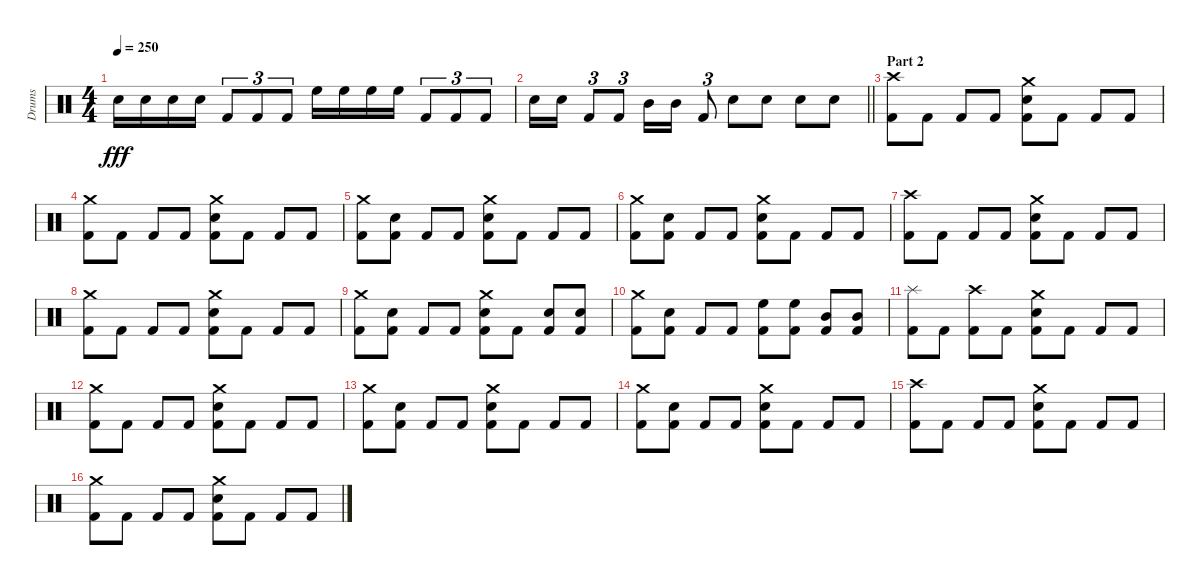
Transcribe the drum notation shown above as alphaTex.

\track ("Drums" "Drums") {solo instrument percussion}
\staff {score}
\articulation defaults
\ts (4 4)
\tempo 250
\clef neutral
\ks c "Snare (hit) 2".16{dy fff} "Snare (hit) 2".16 "Snare (hit) 2".16 "Snare (hit) 2".16 "Kick (hit) 2".8{tu (3 2)} "Kick (hit) 2".8{tu (3 2)} "Kick (hit) 2".8{tu (3 2)} "High Floor Tom (hit)".16 "High Floor Tom (hit)".16 "High Floor Tom (hit)".16 "High Floor Tom (hit)".16 "Kick (hit) 2".8{tu (3 2)} "Kick (hit) 2".8{tu (3 2)} "Kick (hit) 2".8{tu (3 2)}
|
\barLineRight lightlight "Snare (hit) 2".16 "Snare (hit) 2".16 "Kick (hit) 2".8{tu (3 2)} "Kick (hit) 2".8{tu (3 2)} "Mid Tom (hit)".16 "Mid Tom (hit)".16 "Kick (hit) 2".8{tu (3 2)} "Snare (hit) 2".8 "Snare (hit) 2".8 "Snare (hit) 2".8 "Snare (hit) 2".8
|
\section ("" "Part 2")
("Crash high (hit)" "Kick (hit) 2").8 "Kick (hit) 2".8 "Kick (hit) 2".8 "Kick (hit) 2".8 ("Crash medium (hit)" "Snare (hit) 2" "Kick (hit) 2").8 "Kick (hit) 2".8 "Kick (hit) 2".8 "Kick (hit) 2".8 |
("Crash medium (hit)" "Kick (hit) 2").8 "Kick (hit) 2".8 "Kick (hit) 2".8 "Kick (hit) 2".8 ("Crash medium (hit)" "Snare (hit) 2" "Kick (hit) 2").8 "Kick (hit) 2".8 "Kick (hit) 2".8 "Kick (hit) 2".8 |
("Crash medium (hit)" "Kick (hit) 2").8 ("Snare (hit) 2" "Kick (hit) 2").8 "Kick (hit) 2".8 "Kick (hit) 2".8 ("Crash medium (hit)" "Snare (hit) 2" "Kick (hit) 2").8 "Kick (hit) 2".8 "Kick (hit) 2".8 "Kick (hit) 2".8 |
("Crash medium (hit)" "Kick (hit) 2").8 ("Snare (hit) 2" "Kick (hit) 2").8 "Kick (hit) 2".8 "Kick (hit) 2".8 ("Crash medium (hit)" "Snare (hit) 2" "Kick (hit) 2").8 "Kick (hit) 2".8 "Kick (hit) 2".8 "Kick (hit) 2".8 |
("Crash high (hit)" "Kick (hit) 2").8 "Kick (hit) 2".8 "Kick (hit) 2".8 "Kick (hit) 2".8 ("Crash medium (hit)" "Snare (hit) 2" "Kick (hit) 2").8 "Kick (hit) 2".8 "Kick (hit) 2".8 "Kick (hit) 2".8 |
("Crash medium (hit)" "Kick (hit) 2").8 "Kick (hit) 2".8 "Kick (hit) 2".8 "Kick (hit) 2".8 ("Crash medium (hit)" "Snare (hit) 2" "Kick (hit) 2").8 "Kick (hit) 2".8 "Kick (hit) 2".8 "Kick (hit) 2".8 |
("Crash medium (hit)" "Kick (hit) 2").8 ("Snare (hit) 2" "Kick (hit) 2").8 "Kick (hit) 2".8 "Kick (hit) 2".8 ("Crash medium (hit)" "Snare (hit) 2" "Kick (hit) 2").8 "Kick (hit) 2".8 ("Snare (hit) 2" "Kick (hit) 2").8 ("Snare (hit) 2" "Kick (hit) 2").8 |
("Crash medium (hit)" "Kick (hit) 2").8 ("Snare (hit) 2" "Kick (hit) 2").8 "Kick (hit) 2".8 "Kick (hit) 2".8 ("High Floor Tom (hit)" "Kick (hit) 2").8 ("High Floor Tom (hit)" "Kick (hit) 2").8 ("Mid Tom (hit)" "Kick (hit) 2").8 ("Mid Tom (hit)" "Kick (hit) 2").8 |
("Splash (hit)" "Kick (hit) 2").8 "Kick (hit) 2".8 ("Crash high (hit)" "Kick (hit) 2").8 "Kick (hit) 2".8 ("Crash medium (hit)" "Snare (hit) 2" "Kick (hit) 2").8 "Kick (hit) 2".8 "Kick (hit) 2".8 "Kick (hit) 2".8 |
("Crash medium (hit)" "Kick (hit) 2").8 "Kick (hit) 2".8 "Kick (hit) 2".8 "Kick (hit) 2".8 ("Crash medium (hit)" "Snare (hit) 2" "Kick (hit) 2").8 "Kick (hit) 2".8 "Kick (hit) 2".8 "Kick (hit) 2".8 |
("Crash medium (hit)" "Kick (hit) 2").8 ("Snare (hit) 2" "Kick (hit) 2").8 "Kick (hit) 2".8 "Kick (hit) 2".8 ("Crash medium (hit)" "Snare (hit) 2" "Kick (hit) 2").8 "Kick (hit) 2".8 "Kick (hit) 2".8 "Kick (hit) 2".8 |
("Crash medium (hit)" "Kick (hit) 2").8 ("Snare (hit) 2" "Kick (hit) 2").8 "Kick (hit) 2".8 "Kick (hit) 2".8 ("Crash medium (hit)" "Snare (hit) 2" "Kick (hit) 2").8 "Kick (hit) 2".8 "Kick (hit) 2".8 "Kick (hit) 2".8 |
("Crash high (hit)" "Kick (hit) 2").8 "Kick (hit) 2".8 "Kick (hit) 2".8 "Kick (hit) 2".8 ("Crash medium (hit)" "Snare (hit) 2" "Kick (hit) 2").8 "Kick (hit) 2".8 "Kick (hit) 2".8 "Kick (hit) 2".8 |
("Crash medium (hit)" "Kick (hit) 2").8 "Kick (hit) 2".8 "Kick (hit) 2".8 "Kick (hit) 2".8 ("Crash medium (hit)" "Snare (hit) 2" "Kick (hit) 2").8 "Kick (hit) 2".8 "Kick (hit) 2".8 "Kick (hit) 2".8
